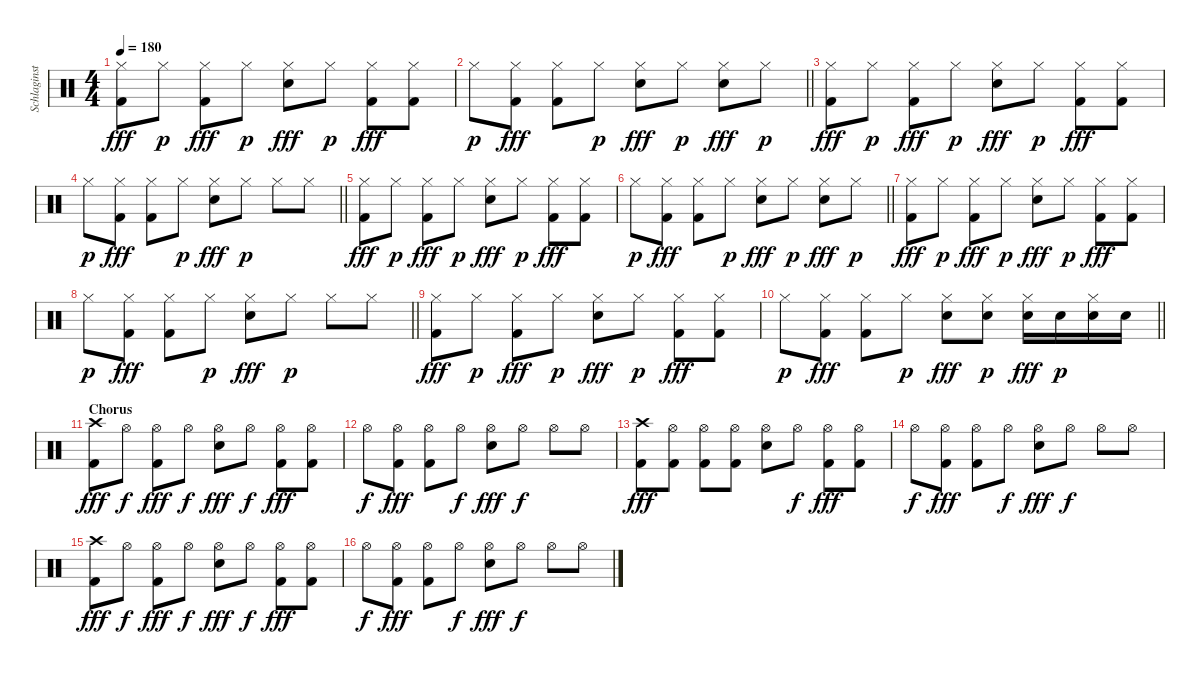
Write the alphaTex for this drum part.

\track ("Schlaginstrumente - Auswahl" "Schlaginst") {instrument percussion}
\staff {score}
\articulation defaults
\ts (4 4)
\tempo 180
\clef neutral
\ks c
("Hi-Hat (closed)" "Kick (hit) 2").8{dy fff} "Hi-Hat (closed)".8{dy p} ("Hi-Hat (closed)" "Kick (hit) 2").8{dy fff} "Hi-Hat (closed)".8{dy p} ("Hi-Hat (closed)" "Snare (hit) 2").8{dy fff} "Hi-Hat (closed)".8{dy p} ("Hi-Hat (closed)" "Kick (hit) 2").8{dy fff} ("Hi-Hat (closed)" "Kick (hit) 2").8 |
\barLineRight lightlight "Hi-Hat (closed)".8{dy p}
("Hi-Hat (closed)" "Kick (hit) 2").8{dy fff} ("Hi-Hat (closed)" "Kick (hit) 2").8 "Hi-Hat (closed)".8{dy p} ("Hi-Hat (closed)" "Snare (hit) 2").8{dy fff} "Hi-Hat (closed)".8{dy p} ("Hi-Hat (closed)" "Snare (hit) 2").8{dy fff} "Hi-Hat (closed)".8{dy p} |
("Hi-Hat (closed)" "Kick (hit) 2").8{dy fff} "Hi-Hat (closed)".8{dy p} ("Hi-Hat (closed)" "Kick (hit) 2").8{dy fff} "Hi-Hat (closed)".8{dy p} ("Hi-Hat (closed)" "Snare (hit) 2").8{dy fff} "Hi-Hat (closed)".8{dy p} ("Hi-Hat (closed)" "Kick (hit) 2").8{dy fff} ("Hi-Hat (closed)" "Kick (hit) 2").8 |
\barLineRight lightlight "Hi-Hat (closed)".8{dy p}
("Hi-Hat (closed)" "Kick (hit) 2").8{dy fff} ("Hi-Hat (closed)" "Kick (hit) 2").8 "Hi-Hat (closed)".8{dy p} ("Hi-Hat (closed)" "Snare (hit) 2").8{dy fff} "Hi-Hat (closed)".8{dy p} "Hi-Hat (closed)".8 "Hi-Hat (closed)".8 |
("Hi-Hat (closed)" "Kick (hit) 2").8{dy fff} "Hi-Hat (closed)".8{dy p} ("Hi-Hat (closed)" "Kick (hit) 2").8{dy fff} "Hi-Hat (closed)".8{dy p} ("Hi-Hat (closed)" "Snare (hit) 2").8{dy fff} "Hi-Hat (closed)".8{dy p} ("Hi-Hat (closed)" "Kick (hit) 2").8{dy fff} ("Hi-Hat (closed)" "Kick (hit) 2").8 |
\barLineRight lightlight "Hi-Hat (closed)".8{dy p}
("Hi-Hat (closed)" "Kick (hit) 2").8{dy fff} ("Hi-Hat (closed)" "Kick (hit) 2").8 "Hi-Hat (closed)".8{dy p} ("Hi-Hat (closed)" "Snare (hit) 2").8{dy fff} "Hi-Hat (closed)".8{dy p} ("Hi-Hat (closed)" "Snare (hit) 2").8{dy fff} "Hi-Hat (closed)".8{dy p} |
("Hi-Hat (closed)" "Kick (hit) 2").8{dy fff} "Hi-Hat (closed)".8{dy p} ("Hi-Hat (closed)" "Kick (hit) 2").8{dy fff} "Hi-Hat (closed)".8{dy p} ("Hi-Hat (closed)" "Snare (hit) 2").8{dy fff} "Hi-Hat (closed)".8{dy p} ("Hi-Hat (closed)" "Kick (hit) 2").8{dy fff} ("Hi-Hat (closed)" "Kick (hit) 2").8 |
\barLineRight lightlight "Hi-Hat (closed)".8{dy p}
("Hi-Hat (closed)" "Kick (hit) 2").8{dy fff} ("Hi-Hat (closed)" "Kick (hit) 2").8 "Hi-Hat (closed)".8{dy p} ("Hi-Hat (closed)" "Snare (hit) 2").8{dy fff} "Hi-Hat (closed)".8{dy p} "Hi-Hat (closed)".8 "Hi-Hat (closed)".8 |
("Hi-Hat (closed)" "Kick (hit) 2").8{dy fff} "Hi-Hat (closed)".8{dy p} ("Hi-Hat (closed)" "Kick (hit) 2").8{dy fff} "Hi-Hat (closed)".8{dy p} ("Hi-Hat (closed)" "Snare (hit) 2").8{dy fff} "Hi-Hat (closed)".8{dy p} ("Hi-Hat (closed)" "Kick (hit) 2").8{dy fff} ("Hi-Hat (closed)" "Kick (hit) 2").8 |
\barLineRight lightlight "Hi-Hat (closed)".8{dy p}
("Hi-Hat (closed)" "Kick (hit) 2").8{dy fff} ("Hi-Hat (closed)" "Kick (hit) 2").8 "Hi-Hat (closed)".8{dy p} ("Hi-Hat (closed)" "Snare (hit) 2").8{dy fff} ("Hi-Hat (closed)" "Snare (hit) 2").8{dy p} ("Hi-Hat (closed)" "Snare (hit) 2").16{dy fff} "Snare (hit) 2".16{dy p} ("Hi-Hat (closed)" "Snare (hit) 2").16 "Snare (hit) 2".16 |
\section ("" "Chorus")
("Crash high (hit)" "Kick (hit) 2").8{dy fff} "Hi-Hat (open)".8{dy f} ("Hi-Hat (open)" "Kick (hit) 2").8{dy fff} "Hi-Hat (open)".8{dy f} ("Hi-Hat (open)" "Snare (hit) 2").8{dy fff} "Hi-Hat (open)".8{dy f} ("Hi-Hat (open)" "Kick (hit) 2").8{dy fff} ("Hi-Hat (open)" "Kick (hit) 2").8 |
"Hi-Hat (open)".8{dy f} ("Hi-Hat (open)" "Kick (hit) 2").8{dy fff} ("Hi-Hat (open)" "Kick (hit) 2").8 "Hi-Hat (open)".8{dy f} ("Hi-Hat (open)" "Snare (hit) 2").8{dy fff} "Hi-Hat (open)".8{dy f} "Hi-Hat (open)".8 "Hi-Hat (open)".8 |
("Crash high (hit)" "Kick (hit) 2").8{dy fff} ("Hi-Hat (open)" "Kick (hit) 2").8 ("Hi-Hat (open)" "Kick (hit) 2").8 ("Hi-Hat (open)" "Kick (hit) 2").8 ("Hi-Hat (open)" "Snare (hit) 2").8 "Hi-Hat (open)".8{dy f} ("Hi-Hat (open)" "Kick (hit) 2").8{dy fff} ("Hi-Hat (open)" "Kick (hit) 2").8 |
"Hi-Hat (open)".8{dy f} ("Hi-Hat (open)" "Kick (hit) 2").8{dy fff} ("Hi-Hat (open)" "Kick (hit) 2").8 "Hi-Hat (open)".8{dy f} ("Hi-Hat (open)" "Snare (hit) 2").8{dy fff} "Hi-Hat (open)".8{dy f} "Hi-Hat (open)".8 "Hi-Hat (open)".8 |
("Crash high (hit)" "Kick (hit) 2").8{dy fff} "Hi-Hat (open)".8{dy f} ("Hi-Hat (open)" "Kick (hit) 2").8{dy fff} "Hi-Hat (open)".8{dy f} ("Hi-Hat (open)" "Snare (hit) 2").8{dy fff} "Hi-Hat (open)".8{dy f} ("Hi-Hat (open)" "Kick (hit) 2").8{dy fff} ("Hi-Hat (open)" "Kick (hit) 2").8 |
"Hi-Hat (open)".8{dy f} ("Hi-Hat (open)" "Kick (hit) 2").8{dy fff} ("Hi-Hat (open)" "Kick (hit) 2").8 "Hi-Hat (open)".8{dy f} ("Hi-Hat (open)" "Snare (hit) 2").8{dy fff} "Hi-Hat (open)".8{dy f} "Hi-Hat (open)".8 "Hi-Hat (open)".8
